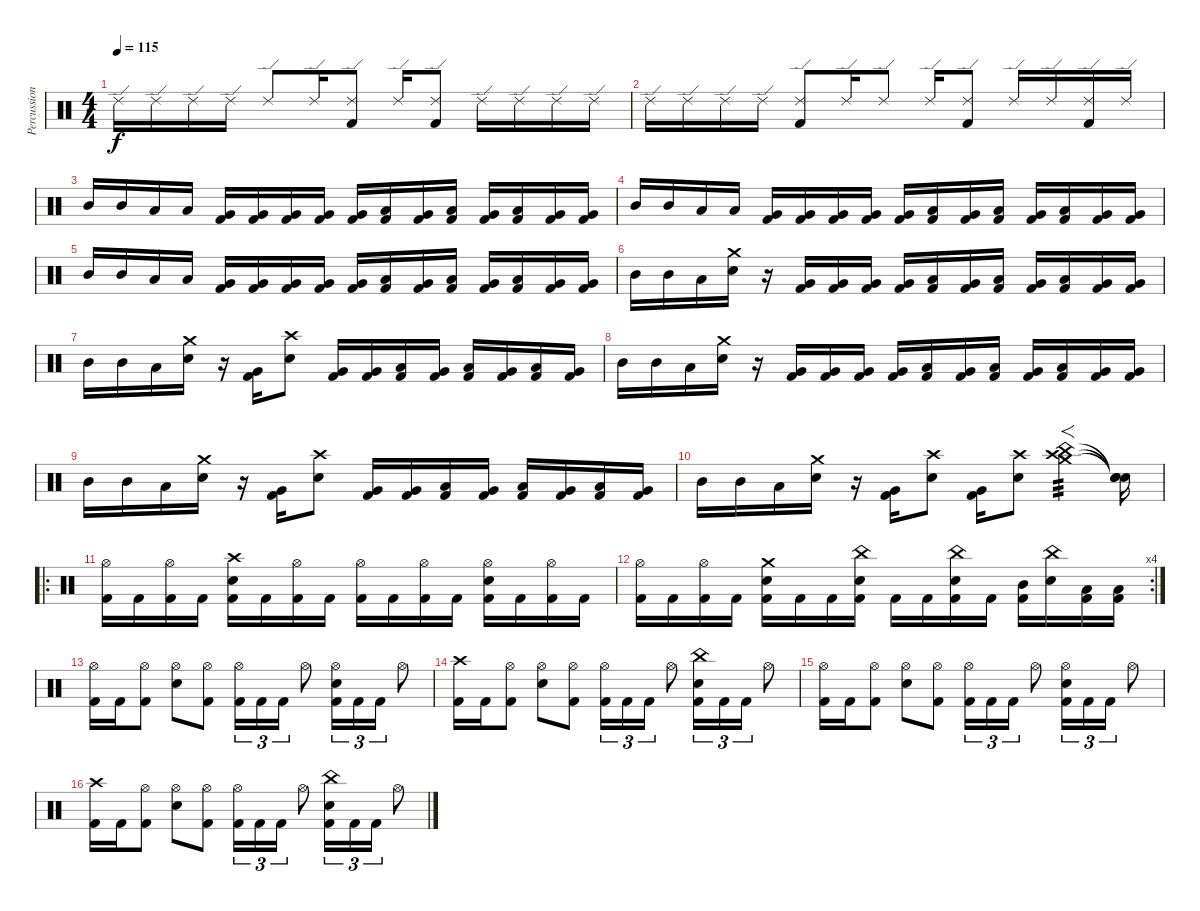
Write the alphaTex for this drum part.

\track ("Percussion" "Percussion") {instrument percussion}
\staff {score}
\articulation defaults
\ts (4 4)
\tempo 115
\clef neutral
\ks c "Ride (edge) 2".16{dy f} "Ride (edge) 2".16 "Ride (edge) 2".16 "Ride (edge) 2".16 "Ride (edge) 2".8 "Ride (edge) 2".16
("Kick (hit) 2" "Ride (edge) 2").8 "Ride (edge) 2".16 ("Kick (hit) 2" "Ride (edge) 2").8 "Ride (edge) 2".16 "Ride (edge) 2".16 "Ride (edge) 2".16 "Ride (edge) 2".16 |
"Ride (edge) 2".16 "Ride (edge) 2".16 "Ride (edge) 2".16 "Ride (edge) 2".16 ("Kick (hit) 2" "Ride (edge) 2").8 "Ride (edge) 2".16 "Ride (edge) 2".8 "Ride (edge) 2".16 ("Kick (hit) 2" "Ride (edge) 2").8 "Ride (edge) 2".16 "Ride (edge) 2".16 ("Kick (hit) 2" "Ride (edge) 2").16 "Ride (edge) 2".16 |
"Mid Tom (hit)".16 "Mid Tom (hit)".16 "Low Tom (hit)".16 "Low Tom (hit)".16 ("Kick (hit) 2" "Very Low Tom (hit)").16 ("Kick (hit) 2" "Very Low Tom (hit)").16 ("Kick (hit) 2" "Very Low Tom (hit)").16 ("Kick (hit) 2" "Very Low Tom (hit)").16 ("Kick (hit) 2" "Very Low Tom (hit)").16 ("Kick (hit) 2" "Low Tom (hit)").16 ("Kick (hit) 2" "Very Low Tom (hit)").16 ("Kick (hit) 2" "Low Tom (hit)").16 ("Kick (hit) 2" "Very Low Tom (hit)").16 ("Kick (hit) 2" "Low Tom (hit)").16 ("Kick (hit) 2" "Very Low Tom (hit)").16 ("Kick (hit) 2" "Very Low Tom (hit)").16 |
"Mid Tom (hit)".16 "Mid Tom (hit)".16 "Low Tom (hit)".16 "Low Tom (hit)".16 ("Kick (hit) 2" "Very Low Tom (hit)").16 ("Kick (hit) 2" "Very Low Tom (hit)").16 ("Kick (hit) 2" "Very Low Tom (hit)").16 ("Kick (hit) 2" "Very Low Tom (hit)").16 ("Kick (hit) 2" "Very Low Tom (hit)").16 ("Kick (hit) 2" "Low Tom (hit)").16 ("Kick (hit) 2" "Very Low Tom (hit)").16 ("Kick (hit) 2" "Low Tom (hit)").16 ("Kick (hit) 2" "Very Low Tom (hit)").16 ("Kick (hit) 2" "Low Tom (hit)").16 ("Kick (hit) 2" "Very Low Tom (hit)").16 ("Kick (hit) 2" "Very Low Tom (hit)").16 |
"Mid Tom (hit)".16 "Mid Tom (hit)".16 "Low Tom (hit)".16 "Low Tom (hit)".16 ("Kick (hit) 2" "Very Low Tom (hit)").16 ("Kick (hit) 2" "Very Low Tom (hit)").16 ("Kick (hit) 2" "Very Low Tom (hit)").16 ("Kick (hit) 2" "Very Low Tom (hit)").16 ("Kick (hit) 2" "Very Low Tom (hit)").16 ("Kick (hit) 2" "Low Tom (hit)").16 ("Kick (hit) 2" "Very Low Tom (hit)").16 ("Kick (hit) 2" "Low Tom (hit)").16 ("Kick (hit) 2" "Very Low Tom (hit)").16 ("Kick (hit) 2" "Low Tom (hit)").16 ("Kick (hit) 2" "Very Low Tom (hit)").16 ("Kick (hit) 2" "Very Low Tom (hit)").16 |
"Mid Tom (hit)".16 "Mid Tom (hit)".16 "Low Tom (hit)".16 ("Crash medium (hit)" "Snare (hit) 2").16 r.16 ("Very Low Tom (hit)" "Kick (hit) 2").16 ("Kick (hit) 2" "Very Low Tom (hit)").16 ("Kick (hit) 2" "Very Low Tom (hit)").16 ("Kick (hit) 2" "Very Low Tom (hit)").16 ("Kick (hit) 2" "Low Tom (hit)").16 ("Kick (hit) 2" "Very Low Tom (hit)").16 ("Kick (hit) 2" "Low Tom (hit)").16 ("Kick (hit) 2" "Very Low Tom (hit)").16 ("Kick (hit) 2" "Low Tom (hit)").16 ("Kick (hit) 2" "Very Low Tom (hit)").16 ("Kick (hit) 2" "Very Low Tom (hit)").16 |
"Mid Tom (hit)".16 "Mid Tom (hit)".16 "Low Tom (hit)".16 ("Crash medium (hit)" "Snare (hit) 2").16 r.16 ("Very Low Tom (hit)" "Kick (hit) 2").16 ("Crash high (hit)" "Snare (hit) 2").8 ("Kick (hit) 2" "Very Low Tom (hit)").16 ("Kick (hit) 2" "Very Low Tom (hit)").16 ("Kick (hit) 2" "Low Tom (hit)").16 ("Kick (hit) 2" "Very Low Tom (hit)").16 ("Kick (hit) 2" "Low Tom (hit)").16 ("Kick (hit) 2" "Very Low Tom (hit)").16 ("Kick (hit) 2" "Low Tom (hit)").16 ("Kick (hit) 2" "Very Low Tom (hit)").16 |
"Mid Tom (hit)".16 "Mid Tom (hit)".16 "Low Tom (hit)".16 ("Crash medium (hit)" "Snare (hit) 2").16 r.16 ("Very Low Tom (hit)" "Kick (hit) 2").16 ("Kick (hit) 2" "Very Low Tom (hit)").16 ("Kick (hit) 2" "Very Low Tom (hit)").16 ("Kick (hit) 2" "Very Low Tom (hit)").16 ("Kick (hit) 2" "Low Tom (hit)").16 ("Kick (hit) 2" "Very Low Tom (hit)").16 ("Kick (hit) 2" "Low Tom (hit)").16 ("Kick (hit) 2" "Very Low Tom (hit)").16 ("Kick (hit) 2" "Low Tom (hit)").16 ("Kick (hit) 2" "Very Low Tom (hit)").16 ("Kick (hit) 2" "Very Low Tom (hit)").16 |
"Mid Tom (hit)".16 "Mid Tom (hit)".16 "Low Tom (hit)".16 ("Crash medium (hit)" "Snare (hit) 2").16 r.16 ("Very Low Tom (hit)" "Kick (hit) 2").16 ("Crash high (hit)" "Snare (hit) 2").8 ("Kick (hit) 2" "Very Low Tom (hit)").16 ("Kick (hit) 2" "Very Low Tom (hit)").16 ("Kick (hit) 2" "Low Tom (hit)").16 ("Kick (hit) 2" "Very Low Tom (hit)").16 ("Kick (hit) 2" "Low Tom (hit)").16 ("Kick (hit) 2" "Very Low Tom (hit)").16 ("Kick (hit) 2" "Low Tom (hit)").16 ("Kick (hit) 2" "Very Low Tom (hit)").16 |
"Mid Tom (hit)".16 "Mid Tom (hit)".16 "Low Tom (hit)".16 ("Crash medium (hit)" "Snare (hit) 2").16 r.16 ("Very Low Tom (hit)" "Kick (hit) 2").16 ("Crash high (hit)" "Snare (hit) 2").8 ("Kick (hit) 2" "Very Low Tom (hit)").16 ("Crash high (hit)" "Snare (hit) 2").8 ("Crash high (hit)" "Crash medium (hit)" "China (hit)").4{f tp 3} ("Snare (hit)"{t} "Snare (hit)"{t} "Snare (hit)"{t}).16 |
\ro
("Hi-Hat (open)" "Kick (hit) 2").16 "Kick (hit) 2".16 ("Hi-Hat (open)" "Kick (hit) 2").16 "Kick (hit) 2".16 ("Crash high (hit)" "Snare (hit) 2" "Kick (hit) 2").16 "Kick (hit) 2".16 ("Hi-Hat (open)" "Kick (hit) 2").16 "Kick (hit) 2".16 ("Hi-Hat (open)" "Kick (hit) 2").16 "Kick (hit) 2".16 ("Hi-Hat (open)" "Kick (hit) 2").16 "Kick (hit) 2".16 ("Hi-Hat (open)" "Snare (hit) 2" "Kick (hit) 2").16 "Kick (hit) 2".16 ("Hi-Hat (open)" "Kick (hit) 2").16 "Kick (hit) 2".16 |
\rc 4
("Hi-Hat (open)" "Kick (hit) 2").16 "Kick (hit) 2".16 ("Hi-Hat (open)" "Kick (hit) 2").16 "Kick (hit) 2".16 ("Crash medium (hit)" "Snare (hit) 2" "Kick (hit) 2").16 "Kick (hit) 2".16 "Kick (hit) 2".16 ("China (hit)" "Snare (hit) 2" "Kick (hit) 2").16 "Kick (hit) 2".16 "Kick (hit) 2".16 ("China (hit)" "Snare (hit) 2" "Kick (hit) 2").16 "Kick (hit) 2".16 ("Mid Tom (hit)" "Kick (hit) 2").16 ("China (hit)" "Snare (hit) 2").16 ("Low Tom (hit)" "Kick (hit) 2").16 ("Low Tom (hit)" "Kick (hit) 2").16 |
("Hi-Hat (open)" "Kick (hit) 2").16 "Kick (hit) 2".16 ("Hi-Hat (open)" "Kick (hit) 2").8 ("Hi-Hat (open)" "Snare (hit) 2").8 ("Hi-Hat (open)" "Kick (hit) 2").8 ("Hi-Hat (open)" "Kick (hit) 2").16{tu (3 2)} "Kick (hit) 2".16{tu (3 2)} "Kick (hit) 2".16{tu (3 2)} "Hi-Hat (open)".8 ("Hi-Hat (open)" "Snare (hit) 2" "Kick (hit) 2").16{tu (3 2)} "Kick (hit) 2".16{tu (3 2)} "Kick (hit) 2".16{tu (3 2)} "Hi-Hat (open)".8 |
("Crash high (hit)" "Kick (hit) 2").16 "Kick (hit) 2".16 ("Hi-Hat (open)" "Kick (hit) 2").8 ("Hi-Hat (open)" "Snare (hit) 2").8 ("Hi-Hat (open)" "Kick (hit) 2").8 ("Hi-Hat (open)" "Kick (hit) 2").16{tu (3 2)} "Kick (hit) 2".16{tu (3 2)} "Kick (hit) 2".16{tu (3 2)} "Hi-Hat (open)".8 ("China (hit)" "Snare (hit) 2" "Kick (hit) 2").16{tu (3 2)} "Kick (hit) 2".16{tu (3 2)} "Kick (hit) 2".16{tu (3 2)} "Hi-Hat (open)".8 |
("Hi-Hat (open)" "Kick (hit) 2").16 "Kick (hit) 2".16 ("Hi-Hat (open)" "Kick (hit) 2").8 ("Hi-Hat (open)" "Snare (hit) 2").8 ("Hi-Hat (open)" "Kick (hit) 2").8 ("Hi-Hat (open)" "Kick (hit) 2").16{tu (3 2)} "Kick (hit) 2".16{tu (3 2)} "Kick (hit) 2".16{tu (3 2)} "Hi-Hat (open)".8 ("Hi-Hat (open)" "Snare (hit) 2" "Kick (hit) 2").16{tu (3 2)} "Kick (hit) 2".16{tu (3 2)} "Kick (hit) 2".16{tu (3 2)} "Hi-Hat (open)".8 |
("Crash high (hit)" "Kick (hit) 2").16 "Kick (hit) 2".16 ("Hi-Hat (open)" "Kick (hit) 2").8 ("Hi-Hat (open)" "Snare (hit) 2").8 ("Hi-Hat (open)" "Kick (hit) 2").8 ("Hi-Hat (open)" "Kick (hit) 2").16{tu (3 2)} "Kick (hit) 2".16{tu (3 2)} "Kick (hit) 2".16{tu (3 2)} "Hi-Hat (open)".8 ("China (hit)" "Snare (hit) 2" "Kick (hit) 2").16{tu (3 2)} "Kick (hit) 2".16{tu (3 2)} "Kick (hit) 2".16{tu (3 2)} "Hi-Hat (open)".8
